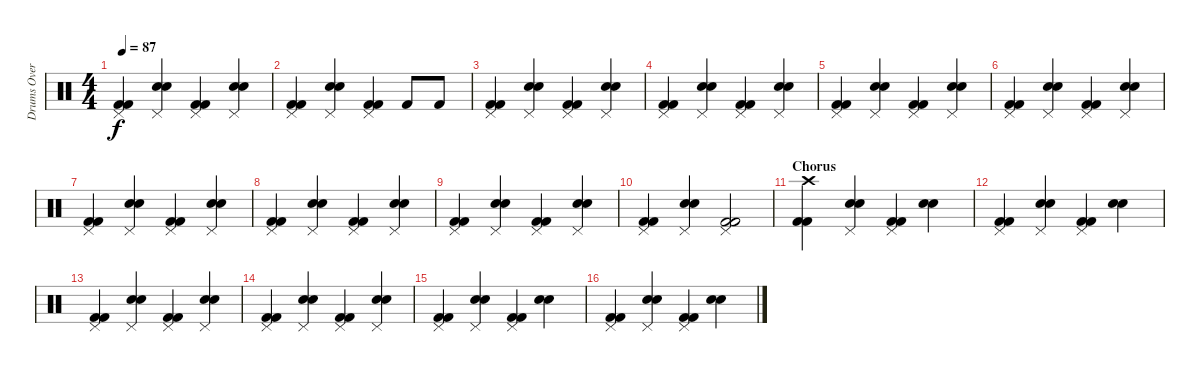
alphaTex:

\track ("Drums Overdub" "Drums Over") {instrument percussion}
\staff {score}
\articulation defaults
\ts (4 4)
\tempo 87
\clef neutral
\ks c
("Pedal Hi-Hat (hit)" "Kick (hit) 2" "Kick (hit) 2").4{dy f} ("Snare (hit) 2" "Snare (hit) 2" "Pedal Hi-Hat (hit)").4 ("Pedal Hi-Hat (hit)" "Kick (hit) 2" "Kick (hit) 2").4 ("Snare (hit) 2" "Snare (hit) 2" "Pedal Hi-Hat (hit)").4 |
("Pedal Hi-Hat (hit)" "Kick (hit) 2" "Kick (hit) 2").4 ("Snare (hit) 2" "Snare (hit) 2" "Pedal Hi-Hat (hit)").4 ("Pedal Hi-Hat (hit)" "Kick (hit) 2" "Kick (hit) 2").4 "Kick (hit) 2".8 "Kick (hit) 2".8 |
("Pedal Hi-Hat (hit)" "Kick (hit) 2" "Kick (hit) 2").4 ("Snare (hit) 2" "Snare (hit) 2" "Pedal Hi-Hat (hit)").4 ("Pedal Hi-Hat (hit)" "Kick (hit) 2" "Kick (hit) 2").4 ("Snare (hit) 2" "Snare (hit) 2" "Pedal Hi-Hat (hit)").4 |
("Pedal Hi-Hat (hit)" "Kick (hit) 2" "Kick (hit) 2").4 ("Snare (hit) 2" "Snare (hit) 2" "Pedal Hi-Hat (hit)").4 ("Pedal Hi-Hat (hit)" "Kick (hit) 2" "Kick (hit) 2").4 ("Snare (hit) 2" "Snare (hit) 2" "Pedal Hi-Hat (hit)").4 |
("Pedal Hi-Hat (hit)" "Kick (hit) 2" "Kick (hit) 2").4 ("Snare (hit) 2" "Snare (hit) 2" "Pedal Hi-Hat (hit)").4 ("Pedal Hi-Hat (hit)" "Kick (hit) 2" "Kick (hit) 2").4 ("Snare (hit) 2" "Snare (hit) 2" "Pedal Hi-Hat (hit)").4 |
("Pedal Hi-Hat (hit)" "Kick (hit) 2" "Kick (hit) 2").4 ("Snare (hit) 2" "Snare (hit) 2" "Pedal Hi-Hat (hit)").4 ("Pedal Hi-Hat (hit)" "Kick (hit) 2" "Kick (hit) 2").4 ("Snare (hit) 2" "Snare (hit) 2" "Pedal Hi-Hat (hit)").4 |
("Pedal Hi-Hat (hit)" "Kick (hit) 2" "Kick (hit) 2").4 ("Snare (hit) 2" "Snare (hit) 2" "Pedal Hi-Hat (hit)").4 ("Pedal Hi-Hat (hit)" "Kick (hit) 2" "Kick (hit) 2").4 ("Snare (hit) 2" "Snare (hit) 2" "Pedal Hi-Hat (hit)").4 |
("Pedal Hi-Hat (hit)" "Kick (hit) 2" "Kick (hit) 2").4 ("Snare (hit) 2" "Snare (hit) 2" "Pedal Hi-Hat (hit)").4 ("Pedal Hi-Hat (hit)" "Kick (hit) 2" "Kick (hit) 2").4 ("Snare (hit) 2" "Snare (hit) 2" "Pedal Hi-Hat (hit)").4 |
("Pedal Hi-Hat (hit)" "Kick (hit) 2" "Kick (hit) 2").4 ("Snare (hit) 2" "Snare (hit) 2" "Pedal Hi-Hat (hit)").4 ("Pedal Hi-Hat (hit)" "Kick (hit) 2" "Kick (hit) 2").4 ("Snare (hit) 2" "Snare (hit) 2" "Pedal Hi-Hat (hit)").4 |
("Pedal Hi-Hat (hit)" "Kick (hit) 2" "Kick (hit) 2").4 ("Snare (hit) 2" "Snare (hit) 2" "Pedal Hi-Hat (hit)").4 ("Pedal Hi-Hat (hit)" "Kick (hit) 2" "Kick (hit) 2").2 |
\section ("" "Chorus")
("Crash high (hit)" "Kick (hit) 2" "Kick (hit) 2").4 ("Snare (hit) 2" "Snare (hit) 2" "Pedal Hi-Hat (hit)").4 ("Pedal Hi-Hat (hit)" "Kick (hit) 2" "Kick (hit) 2").4 ("Snare (hit) 2" "Snare (hit) 2").4 |
("Pedal Hi-Hat (hit)" "Kick (hit) 2" "Kick (hit) 2").4 ("Snare (hit) 2" "Snare (hit) 2" "Pedal Hi-Hat (hit)").4 ("Pedal Hi-Hat (hit)" "Kick (hit) 2" "Kick (hit) 2").4 ("Snare (hit) 2" "Snare (hit) 2").4 |
("Pedal Hi-Hat (hit)" "Kick (hit) 2" "Kick (hit) 2").4 ("Snare (hit) 2" "Snare (hit) 2" "Pedal Hi-Hat (hit)").4 ("Pedal Hi-Hat (hit)" "Kick (hit) 2" "Kick (hit) 2").4 ("Snare (hit) 2" "Snare (hit) 2" "Pedal Hi-Hat (hit)").4 |
("Pedal Hi-Hat (hit)" "Kick (hit) 2" "Kick (hit) 2").4 ("Snare (hit) 2" "Snare (hit) 2" "Pedal Hi-Hat (hit)").4 ("Pedal Hi-Hat (hit)" "Kick (hit) 2" "Kick (hit) 2").4 ("Snare (hit) 2" "Snare (hit) 2" "Pedal Hi-Hat (hit)").4 |
("Pedal Hi-Hat (hit)" "Kick (hit) 2" "Kick (hit) 2").4 ("Snare (hit) 2" "Snare (hit) 2" "Pedal Hi-Hat (hit)").4 ("Pedal Hi-Hat (hit)" "Kick (hit) 2" "Kick (hit) 2").4 ("Snare (hit) 2" "Snare (hit) 2").4 |
("Pedal Hi-Hat (hit)" "Kick (hit) 2" "Kick (hit) 2").4 ("Snare (hit) 2" "Snare (hit) 2" "Pedal Hi-Hat (hit)").4 ("Pedal Hi-Hat (hit)" "Kick (hit) 2" "Kick (hit) 2").4 ("Snare (hit) 2" "Snare (hit) 2").4
